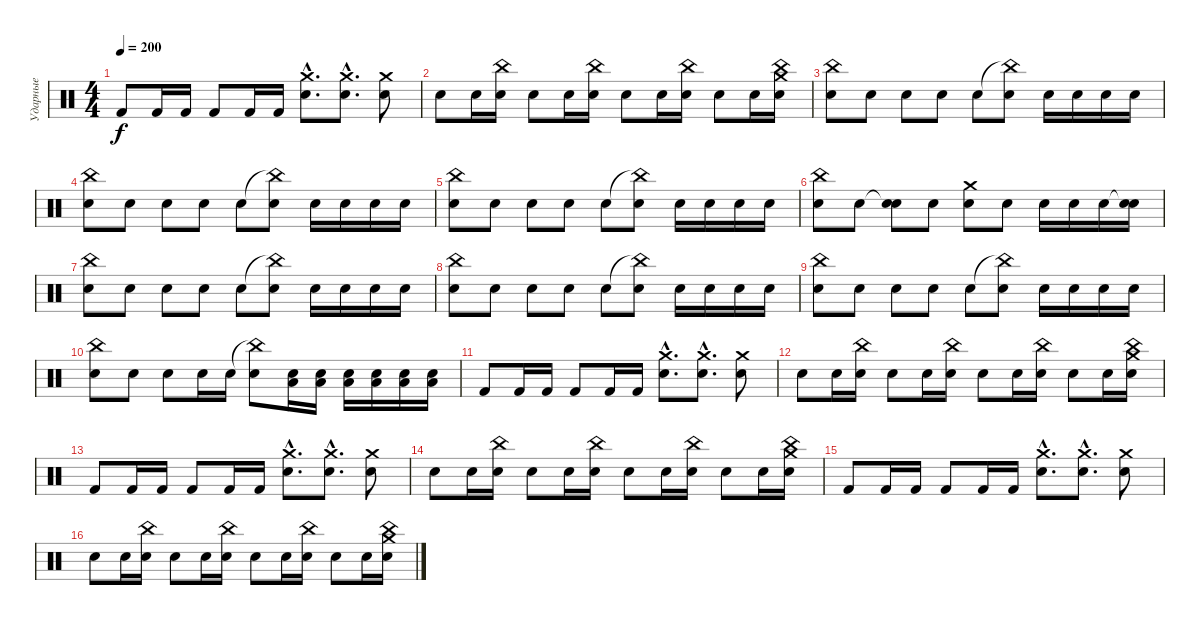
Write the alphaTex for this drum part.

\track ("Ударные" "Ударные") {instrument percussion}
\staff {score}
\articulation defaults
\ts (4 4)
\tempo 200
\clef neutral
\ks c "Kick (hit) 2".8{dy f} "Kick (hit) 2".16 "Kick (hit) 2".16 "Kick (hit) 2".8 "Kick (hit) 2".16 "Kick (hit) 2".16
("Snare (hit) 2"{hac} "Crash medium (hit)"{hac}).8{d} ("Snare (hit) 2"{hac} "Crash medium (hit)"{hac}).8{d} ("Snare (hit) 2" "Crash medium (hit)").8 |
"Snare (hit) 2".8 "Snare (hit) 2".16 ("Snare (hit) 2" "China (hit)").16 "Snare (hit) 2".8 "Snare (hit) 2".16 ("Snare (hit) 2" "China (hit)").16 "Snare (hit) 2".8 "Snare (hit) 2".16 ("Snare (hit) 2" "China (hit)").16 "Snare (hit) 2".8 "Snare (hit) 2".16 ("Snare (hit) 2" "Crash medium (hit)" "China (hit)").16 |
("China (hit)" "Snare (hit) 2").8 "Snare (hit) 2".8 "Snare (hit) 2".8 "Snare (hit) 2".8 "Snare (hit) 2".8 ("China (hit)"{t} "Snare (hit) 2").8 "Snare (hit) 2".16 "Snare (hit) 2".16 "Snare (hit) 2".16 "Snare (hit) 2".16 |
("China (hit)" "Snare (hit) 2").8 "Snare (hit) 2".8 "Snare (hit) 2".8 "Snare (hit) 2".8 "Snare (hit) 2".8 ("China (hit)"{t} "Snare (hit) 2").8 "Snare (hit) 2".16 "Snare (hit) 2".16 "Snare (hit) 2".16 "Snare (hit) 2".16 |
("China (hit)" "Snare (hit) 2").8 "Snare (hit) 2".8 "Snare (hit) 2".8 "Snare (hit) 2".8 "Snare (hit) 2".8 ("China (hit)"{t} "Snare (hit) 2").8 "Snare (hit) 2".16 "Snare (hit) 2".16 "Snare (hit) 2".16 "Snare (hit) 2".16 |
("China (hit)" "Snare (hit) 2").8 "Snare (hit) 2".8 ("Snare (hit)"{t} "Snare (hit) 2").8 "Snare (hit) 2".8 ("Crash medium (hit)" "Snare (hit) 2").8 "Snare (hit) 2".8 "Snare (hit) 2".16 "Snare (hit) 2".16 "Snare (hit) 2".16 ("Snare (hit)"{t} "Snare (hit) 2").16 |
("China (hit)" "Snare (hit) 2").8 "Snare (hit) 2".8 "Snare (hit) 2".8 "Snare (hit) 2".8 "Snare (hit) 2".8 ("China (hit)"{t} "Snare (hit) 2").8 "Snare (hit) 2".16 "Snare (hit) 2".16 "Snare (hit) 2".16 "Snare (hit) 2".16 |
("China (hit)" "Snare (hit) 2").8 "Snare (hit) 2".8 "Snare (hit) 2".8 "Snare (hit) 2".8 "Snare (hit) 2".8 ("China (hit)"{t} "Snare (hit) 2").8 "Snare (hit) 2".16 "Snare (hit) 2".16 "Snare (hit) 2".16 "Snare (hit) 2".16 |
("China (hit)" "Snare (hit) 2").8 "Snare (hit) 2".8 "Snare (hit) 2".8 "Snare (hit) 2".8 "Snare (hit) 2".8 ("China (hit)"{t} "Snare (hit) 2").8 "Snare (hit) 2".16 "Snare (hit) 2".16 "Snare (hit) 2".16 "Snare (hit) 2".16 |
("China (hit)" "Snare (hit) 2").8 "Snare (hit) 2".8 "Snare (hit) 2".8 "Snare (hit) 2".16 "Snare (hit) 2".16 ("China (hit)"{t} "Snare (hit) 2").8 ("Low Floor Tom (hit)" "Electric Snare (hit)").16 ("Low Floor Tom (hit)" "Electric Snare (hit)").16 ("Low Floor Tom (hit)" "Electric Snare (hit)").16 ("Low Floor Tom (hit)" "Electric Snare (hit)").16 ("Low Floor Tom (hit)" "Electric Snare (hit)").16 ("Low Floor Tom (hit)" "Electric Snare (hit)").16 |
"Kick (hit) 2".8 "Kick (hit) 2".16 "Kick (hit) 2".16 "Kick (hit) 2".8 "Kick (hit) 2".16 "Kick (hit) 2".16 ("Snare (hit) 2"{hac} "Crash medium (hit)"{hac}).8{d} ("Snare (hit) 2"{hac} "Crash medium (hit)"{hac}).8{d} ("Snare (hit) 2" "Crash medium (hit)").8 |
"Snare (hit) 2".8 "Snare (hit) 2".16 ("Snare (hit) 2" "China (hit)").16 "Snare (hit) 2".8 "Snare (hit) 2".16 ("Snare (hit) 2" "China (hit)").16 "Snare (hit) 2".8 "Snare (hit) 2".16 ("Snare (hit) 2" "China (hit)").16 "Snare (hit) 2".8 "Snare (hit) 2".16 ("Snare (hit) 2" "Crash medium (hit)" "China (hit)").16 |
"Kick (hit) 2".8 "Kick (hit) 2".16 "Kick (hit) 2".16 "Kick (hit) 2".8 "Kick (hit) 2".16 "Kick (hit) 2".16 ("Snare (hit) 2"{hac} "Crash medium (hit)"{hac}).8{d} ("Snare (hit) 2"{hac} "Crash medium (hit)"{hac}).8{d} ("Snare (hit) 2" "Crash medium (hit)").8 |
"Snare (hit) 2".8 "Snare (hit) 2".16 ("Snare (hit) 2" "China (hit)").16 "Snare (hit) 2".8 "Snare (hit) 2".16 ("Snare (hit) 2" "China (hit)").16 "Snare (hit) 2".8 "Snare (hit) 2".16 ("Snare (hit) 2" "China (hit)").16 "Snare (hit) 2".8 "Snare (hit) 2".16 ("Snare (hit) 2" "Crash medium (hit)" "China (hit)").16 |
"Kick (hit) 2".8 "Kick (hit) 2".16 "Kick (hit) 2".16 "Kick (hit) 2".8 "Kick (hit) 2".16 "Kick (hit) 2".16 ("Snare (hit) 2"{hac} "Crash medium (hit)"{hac}).8{d} ("Snare (hit) 2"{hac} "Crash medium (hit)"{hac}).8{d} ("Snare (hit) 2" "Crash medium (hit)").8 |
"Snare (hit) 2".8 "Snare (hit) 2".16 ("Snare (hit) 2" "China (hit)").16 "Snare (hit) 2".8 "Snare (hit) 2".16 ("Snare (hit) 2" "China (hit)").16 "Snare (hit) 2".8 "Snare (hit) 2".16 ("Snare (hit) 2" "China (hit)").16 "Snare (hit) 2".8 "Snare (hit) 2".16 ("Snare (hit) 2" "Crash medium (hit)" "China (hit)").16
